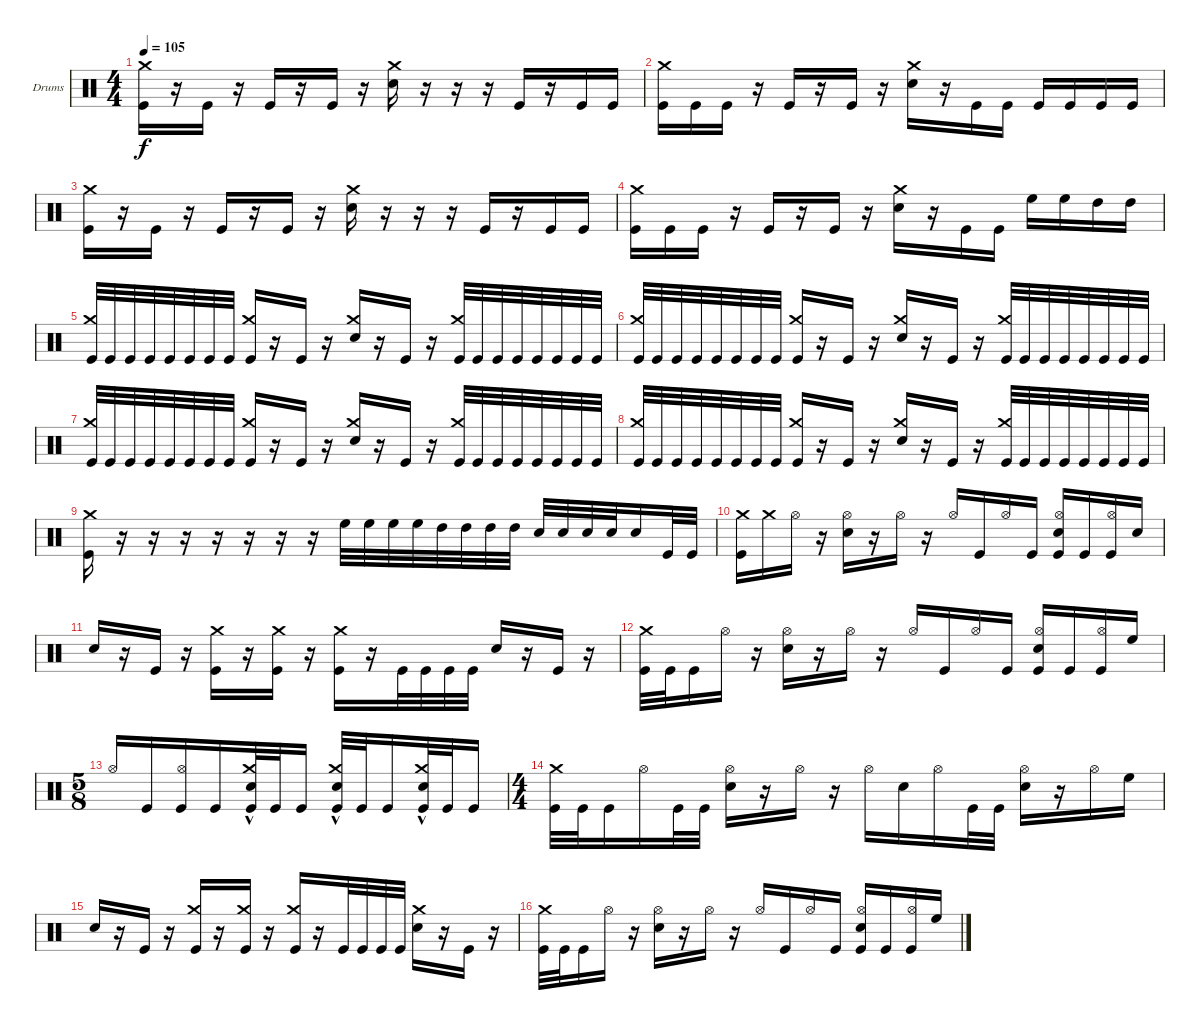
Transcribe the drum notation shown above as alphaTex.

\defaultSystemsLayout 4
\bracketExtendMode groupsimilarinstruments
\firstSystemTrackNameOrientation horizontal
\otherSystemsTrackNameOrientation horizontal
\track ("Drumkit" "Drums") {instrument percussion}
\staff {score}
\articulation defaults
\ts (4 4)
\tempo 105
\clef neutral
\ks c
("Kick (hit)" "Crash medium (hit)").16{dy f} r.16 "Kick (hit)".16 r.16 "Kick (hit)".16 r.16 "Kick (hit)".16 r.16 ("Snare (hit) 2" "Crash medium (hit)").16 r.16 r.16 r.16 "Kick (hit)".16 r.16 "Kick (hit)".16 "Kick (hit)".16 |
("Kick (hit)" "Crash medium (hit)").16 "Kick (hit)".16 "Kick (hit)".16 r.16 "Kick (hit)".16 r.16 "Kick (hit)".16 r.16 ("Snare (hit) 2" "Crash medium (hit)").16 r.16 "Kick (hit)".16 "Kick (hit)".16 "Kick (hit)".16 "Kick (hit)".16 "Kick (hit)".16 "Kick (hit)".16 |
("Kick (hit)" "Crash medium (hit)").16 r.16 "Kick (hit)".16 r.16 "Kick (hit)".16 r.16 "Kick (hit)".16 r.16 ("Snare (hit) 2" "Crash medium (hit)").16 r.16 r.16 r.16 "Kick (hit)".16 r.16 "Kick (hit)".16 "Kick (hit)".16 |
("Kick (hit)" "Crash medium (hit)").16 "Kick (hit)".16 "Kick (hit)".16 r.16 "Kick (hit)".16 r.16 "Kick (hit)".16 r.16 ("Snare (hit) 2" "Crash medium (hit)").16 r.16 "Kick (hit)".16 "Kick (hit)".16 "High Floor Tom (hit)".16 "High Floor Tom (hit)".16 "High Tom (hit)".16 "High Tom (hit)".16 |
("Kick (hit)" "Crash medium (hit)").32{beam invert} "Kick (hit)".32 "Kick (hit)".32 "Kick (hit)".32 "Kick (hit)".32 "Kick (hit)".32 "Kick (hit)".32 "Kick (hit)".32 ("Kick (hit)" "Crash medium (hit)").16{beam invert} r.16 "Kick (hit)".16 r.16 ("Snare (hit) 2" "Crash medium (hit)").16 r.16 "Kick (hit)".16 r.16 ("Kick (hit)" "Crash medium (hit)").32{beam invert} "Kick (hit)".32 "Kick (hit)".32 "Kick (hit)".32 "Kick (hit)".32 "Kick (hit)".32 "Kick (hit)".32 "Kick (hit)".32 |
("Kick (hit)" "Crash medium (hit)").32{beam invert} "Kick (hit)".32 "Kick (hit)".32 "Kick (hit)".32 "Kick (hit)".32 "Kick (hit)".32 "Kick (hit)".32 "Kick (hit)".32 ("Kick (hit)" "Crash medium (hit)").16{beam invert} r.16 "Kick (hit)".16 r.16 ("Snare (hit) 2" "Crash medium (hit)").16 r.16 "Kick (hit)".16 r.16 ("Kick (hit)" "Crash medium (hit)").32{beam invert} "Kick (hit)".32 "Kick (hit)".32 "Kick (hit)".32 "Kick (hit)".32 "Kick (hit)".32 "Kick (hit)".32 "Kick (hit)".32 |
("Kick (hit)" "Crash medium (hit)").32{beam invert} "Kick (hit)".32 "Kick (hit)".32 "Kick (hit)".32 "Kick (hit)".32 "Kick (hit)".32 "Kick (hit)".32 "Kick (hit)".32 ("Kick (hit)" "Crash medium (hit)").16{beam invert} r.16 "Kick (hit)".16 r.16 ("Snare (hit) 2" "Crash medium (hit)").16 r.16 "Kick (hit)".16 r.16 ("Kick (hit)" "Crash medium (hit)").32{beam invert} "Kick (hit)".32 "Kick (hit)".32 "Kick (hit)".32 "Kick (hit)".32 "Kick (hit)".32 "Kick (hit)".32 "Kick (hit)".32 |
("Kick (hit)" "Crash medium (hit)").32{beam invert} "Kick (hit)".32 "Kick (hit)".32 "Kick (hit)".32 "Kick (hit)".32 "Kick (hit)".32 "Kick (hit)".32 "Kick (hit)".32 ("Kick (hit)" "Crash medium (hit)").16{beam invert} r.16 "Kick (hit)".16 r.16 ("Snare (hit) 2" "Crash medium (hit)").16 r.16 "Kick (hit)".16 r.16 ("Kick (hit)" "Crash medium (hit)").32{beam invert} "Kick (hit)".32 "Kick (hit)".32 "Kick (hit)".32 "Kick (hit)".32 "Kick (hit)".32 "Kick (hit)".32 "Kick (hit)".32 |
("Kick (hit)" "Crash medium (hit)").16 r.16 r.16 r.16 r.16 r.16 r.16 r.16 "High Floor Tom (hit)".32 "High Floor Tom (hit)".32 "High Floor Tom (hit)".32 "High Floor Tom (hit)".32 "High Tom (hit)".32 "High Tom (hit)".32 "High Tom (hit)".32 "High Tom (hit)".32 "Snare (hit) 2".32 "Snare (hit) 2".32 "Snare (hit) 2".32 "Snare (hit) 2".32 "Snare (hit) 2".16 "Kick (hit)".32 "Kick (hit)".32 |
("Kick (hit)" "Crash medium (hit)").16 "Crash medium (hit)".16 "Hi-Hat (open)".16 r.16 ("Hi-Hat (open)" "Snare (hit) 2").16 r.16 "Hi-Hat (open)".16 r.16 "Hi-Hat (open)".16 "Kick (hit)".16 "Hi-Hat (open)".16 "Kick (hit)".16 ("Kick (hit)" "Hi-Hat (open)" "Snare (hit) 2").16{beam invert} "Kick (hit)".16 ("Kick (hit)" "Hi-Hat (open)").16 "Snare (hit) 2".16 |
"Snare (hit) 2".16 r.16 "Kick (hit)".16 r.16 ("Kick (hit)" "Crash medium (hit)").16 r.16 ("Kick (hit)" "Crash medium (hit)").16 r.16 ("Kick (hit)" "Crash medium (hit)").16 r.16 "Kick (hit)".32 "Kick (hit)".32 "Kick (hit)".32 "Kick (hit)".32 "Snare (hit) 2".16 r.16 "Kick (hit)".16 r.16 |
("Kick (hit)" "Crash medium (hit)").32 "Kick (hit)".32 "Kick (hit)".16 "Hi-Hat (open)".16 r.16 ("Hi-Hat (open)" "Snare (hit) 2").16 r.16 "Hi-Hat (open)".16 r.16 "Hi-Hat (open)".16 "Kick (hit)".16 "Hi-Hat (open)".16 "Kick (hit)".16 ("Kick (hit)" "Snare (hit) 2" "Hi-Hat (open)").16{beam invert} "Kick (hit)".16 ("Kick (hit)" "Hi-Hat (open)").16 "High Floor Tom (hit)".16 |
\ts (5 8)
"Hi-Hat (open)".16{beam invert} "Kick (hit)".16 ("Kick (hit)" "Hi-Hat (open)").16 "Kick (hit)".16 ("Crash medium (hit)"{hac} "Snare (hit) 2" "Kick (hit)").32 "Kick (hit)".32 "Kick (hit)".16 ("Crash medium (hit)"{hac} "Snare (hit) 2" "Kick (hit)").32 "Kick (hit)".32 "Kick (hit)".16 ("Crash medium (hit)"{hac} "Snare (hit) 2" "Kick (hit)").32 "Kick (hit)".32 "Kick (hit)".16 |
\ts (4 4)
("Crash medium (hit)" "Kick (hit)").32 "Kick (hit)".32 "Kick (hit)".16 "Hi-Hat (open)".16 "Kick (hit)".32 "Kick (hit)".32 ("Snare (hit) 2" "Hi-Hat (open)").16 r.16 "Hi-Hat (open)".16 r.16 "Hi-Hat (open)".16 "Snare (hit) 2".16 "Hi-Hat (open)".16 "Kick (hit)".32 "Kick (hit)".32 ("Snare (hit) 2" "Hi-Hat (open)").16 r.16 "Hi-Hat (open)".16 "High Floor Tom (hit)".16 |
"Snare (hit) 2".16 r.16 "Kick (hit)".16 r.16 ("Kick (hit)" "Crash medium (hit)").16 r.16 ("Kick (hit)" "Crash medium (hit)").16 r.16 ("Kick (hit)" "Crash medium (hit)").16{beam invert} r.16 "Kick (hit)".32 "Kick (hit)".32 "Kick (hit)".32 "Kick (hit)".32 ("Snare (hit) 2" "Crash medium (hit)").16 r.16 "Kick (hit)".16 r.16 |
("Kick (hit)" "Crash medium (hit)").32 "Kick (hit)".32 "Kick (hit)".16 "Hi-Hat (open)".16 r.16 ("Hi-Hat (open)" "Snare (hit) 2").16 r.16 "Hi-Hat (open)".16 r.16 "Hi-Hat (open)".16 "Kick (hit)".16 "Hi-Hat (open)".16 "Kick (hit)".16 ("Kick (hit)" "Snare (hit) 2" "Hi-Hat (open)").16{beam invert} "Kick (hit)".16 ("Kick (hit)" "Hi-Hat (open)").16 "High Floor Tom (hit)".16
